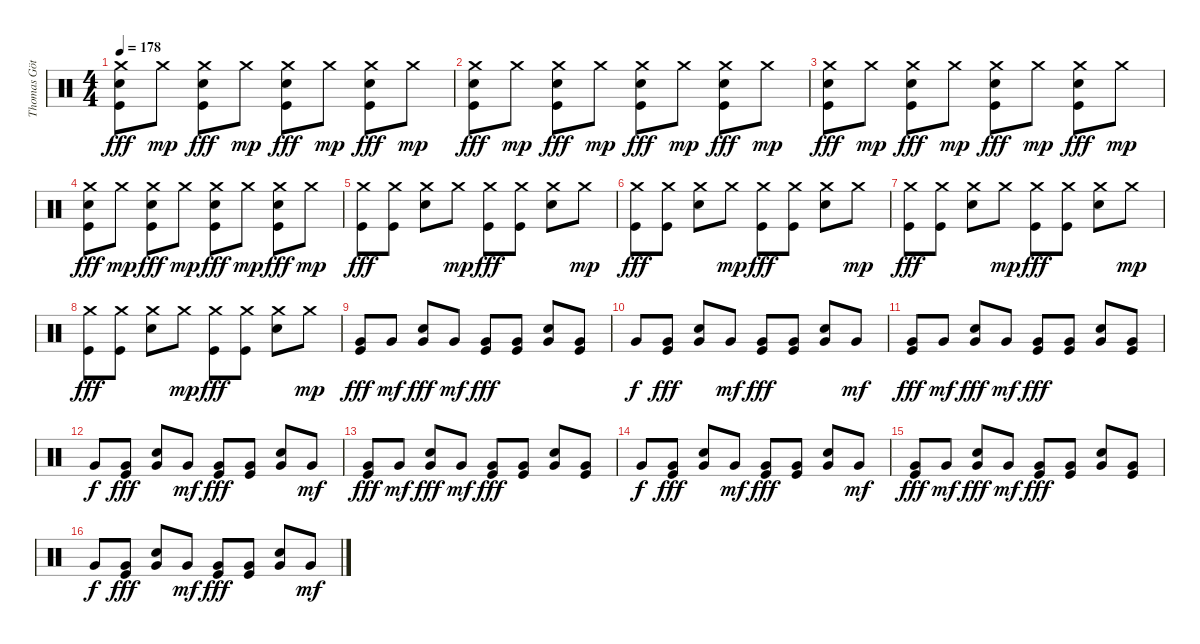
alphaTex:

\track ("Thomas Götz" "Thomas Göt") {instrument percussion}
\staff {score}
\articulation defaults
\ts (4 4)
\tempo 178
\clef neutral
\ks c
("Crash medium (hit)" "Electric Snare (hit)" "Kick (hit)").8{dy fff} "Crash medium (hit)".8{dy mp} ("Crash medium (hit)" "Electric Snare (hit)" "Kick (hit)").8{dy fff} "Crash medium (hit)".8{dy mp} ("Crash medium (hit)" "Electric Snare (hit)" "Kick (hit)").8{dy fff} "Crash medium (hit)".8{dy mp} ("Crash medium (hit)" "Electric Snare (hit)" "Kick (hit)").8{dy fff} "Crash medium (hit)".8{dy mp} |
("Crash medium (hit)" "Electric Snare (hit)" "Kick (hit)").8{dy fff} "Crash medium (hit)".8{dy mp} ("Crash medium (hit)" "Electric Snare (hit)" "Kick (hit)").8{dy fff} "Crash medium (hit)".8{dy mp} ("Crash medium (hit)" "Electric Snare (hit)" "Kick (hit)").8{dy fff} "Crash medium (hit)".8{dy mp} ("Crash medium (hit)" "Electric Snare (hit)" "Kick (hit)").8{dy fff} "Crash medium (hit)".8{dy mp} |
("Crash medium (hit)" "Electric Snare (hit)" "Kick (hit)").8{dy fff} "Crash medium (hit)".8{dy mp} ("Crash medium (hit)" "Electric Snare (hit)" "Kick (hit)").8{dy fff} "Crash medium (hit)".8{dy mp} ("Crash medium (hit)" "Electric Snare (hit)" "Kick (hit)").8{dy fff} "Crash medium (hit)".8{dy mp} ("Crash medium (hit)" "Electric Snare (hit)" "Kick (hit)").8{dy fff} "Crash medium (hit)".8{dy mp} |
("Crash medium (hit)" "Electric Snare (hit)" "Kick (hit)").8{dy fff} "Crash medium (hit)".8{dy mp} ("Crash medium (hit)" "Electric Snare (hit)" "Kick (hit)").8{dy fff} "Crash medium (hit)".8{dy mp} ("Crash medium (hit)" "Electric Snare (hit)" "Kick (hit)").8{dy fff} "Crash medium (hit)".8{dy mp} ("Crash medium (hit)" "Electric Snare (hit)" "Kick (hit)").8{dy fff} "Crash medium (hit)".8{dy mp} |
("Crash medium (hit)" "Kick (hit)").8{dy fff} ("Crash medium (hit)" "Kick (hit)").8 ("Crash medium (hit)" "Electric Snare (hit)").8 "Crash medium (hit)".8{dy mp} ("Crash medium (hit)" "Kick (hit)").8{dy fff} ("Crash medium (hit)" "Kick (hit)").8 ("Crash medium (hit)" "Electric Snare (hit)").8 "Crash medium (hit)".8{dy mp} |
("Crash medium (hit)" "Kick (hit)").8{dy fff} ("Crash medium (hit)" "Kick (hit)").8 ("Crash medium (hit)" "Electric Snare (hit)").8 "Crash medium (hit)".8{dy mp} ("Crash medium (hit)" "Kick (hit)").8{dy fff} ("Crash medium (hit)" "Kick (hit)").8 ("Crash medium (hit)" "Electric Snare (hit)").8 "Crash medium (hit)".8{dy mp} |
("Crash medium (hit)" "Kick (hit)").8{dy fff} ("Crash medium (hit)" "Kick (hit)").8 ("Crash medium (hit)" "Electric Snare (hit)").8 "Crash medium (hit)".8{dy mp} ("Crash medium (hit)" "Kick (hit)").8{dy fff} ("Crash medium (hit)" "Kick (hit)").8 ("Crash medium (hit)" "Electric Snare (hit)").8 "Crash medium (hit)".8{dy mp} |
("Crash medium (hit)" "Kick (hit)").8{dy fff} ("Crash medium (hit)" "Kick (hit)").8 ("Crash medium (hit)" "Electric Snare (hit)").8 "Crash medium (hit)".8{dy mp} ("Crash medium (hit)" "Kick (hit)").8{dy fff} ("Crash medium (hit)" "Kick (hit)").8 ("Crash medium (hit)" "Electric Snare (hit)").8 "Crash medium (hit)".8{dy mp} |
("Very Low Tom (hit)" "Kick (hit)").8{dy fff} "Very Low Tom (hit)".8{dy mf} ("Very Low Tom (hit)" "Electric Snare (hit)").8{dy fff} "Very Low Tom (hit)".8{dy mf} ("Very Low Tom (hit)" "Kick (hit)").8{dy fff} ("Very Low Tom (hit)" "Kick (hit)").8 ("Very Low Tom (hit)" "Electric Snare (hit)").8 ("Very Low Tom (hit)" "Kick (hit)").8 |
"Very Low Tom (hit)".8{dy f} ("Very Low Tom (hit)" "Kick (hit)").8{dy fff} ("Very Low Tom (hit)" "Electric Snare (hit)").8 "Very Low Tom (hit)".8{dy mf} ("Very Low Tom (hit)" "Kick (hit)").8{dy fff} ("Very Low Tom (hit)" "Kick (hit)").8 ("Very Low Tom (hit)" "Electric Snare (hit)").8 "Very Low Tom (hit)".8{dy mf} |
("Very Low Tom (hit)" "Kick (hit)").8{dy fff} "Very Low Tom (hit)".8{dy mf} ("Very Low Tom (hit)" "Electric Snare (hit)").8{dy fff} "Very Low Tom (hit)".8{dy mf} ("Very Low Tom (hit)" "Kick (hit)").8{dy fff} ("Very Low Tom (hit)" "Kick (hit)").8 ("Very Low Tom (hit)" "Electric Snare (hit)").8 ("Very Low Tom (hit)" "Kick (hit)").8 |
"Very Low Tom (hit)".8{dy f} ("Very Low Tom (hit)" "Kick (hit)").8{dy fff} ("Very Low Tom (hit)" "Electric Snare (hit)").8 "Very Low Tom (hit)".8{dy mf} ("Very Low Tom (hit)" "Kick (hit)").8{dy fff} ("Very Low Tom (hit)" "Kick (hit)").8 ("Very Low Tom (hit)" "Electric Snare (hit)").8 "Very Low Tom (hit)".8{dy mf} |
("Very Low Tom (hit)" "Kick (hit)").8{dy fff} "Very Low Tom (hit)".8{dy mf} ("Very Low Tom (hit)" "Electric Snare (hit)").8{dy fff} "Very Low Tom (hit)".8{dy mf} ("Very Low Tom (hit)" "Kick (hit)").8{dy fff} ("Very Low Tom (hit)" "Kick (hit)").8 ("Very Low Tom (hit)" "Electric Snare (hit)").8 ("Very Low Tom (hit)" "Kick (hit)").8 |
"Very Low Tom (hit)".8{dy f} ("Very Low Tom (hit)" "Kick (hit)").8{dy fff} ("Very Low Tom (hit)" "Electric Snare (hit)").8 "Very Low Tom (hit)".8{dy mf} ("Very Low Tom (hit)" "Kick (hit)").8{dy fff} ("Very Low Tom (hit)" "Kick (hit)").8 ("Very Low Tom (hit)" "Electric Snare (hit)").8 "Very Low Tom (hit)".8{dy mf} |
("Very Low Tom (hit)" "Kick (hit)").8{dy fff} "Very Low Tom (hit)".8{dy mf} ("Very Low Tom (hit)" "Electric Snare (hit)").8{dy fff} "Very Low Tom (hit)".8{dy mf} ("Very Low Tom (hit)" "Kick (hit)").8{dy fff} ("Very Low Tom (hit)" "Kick (hit)").8 ("Very Low Tom (hit)" "Electric Snare (hit)").8 ("Very Low Tom (hit)" "Kick (hit)").8 |
"Very Low Tom (hit)".8{dy f} ("Very Low Tom (hit)" "Kick (hit)").8{dy fff} ("Very Low Tom (hit)" "Electric Snare (hit)").8 "Very Low Tom (hit)".8{dy mf} ("Very Low Tom (hit)" "Kick (hit)").8{dy fff} ("Very Low Tom (hit)" "Kick (hit)").8 ("Very Low Tom (hit)" "Electric Snare (hit)").8 "Very Low Tom (hit)".8{dy mf}
